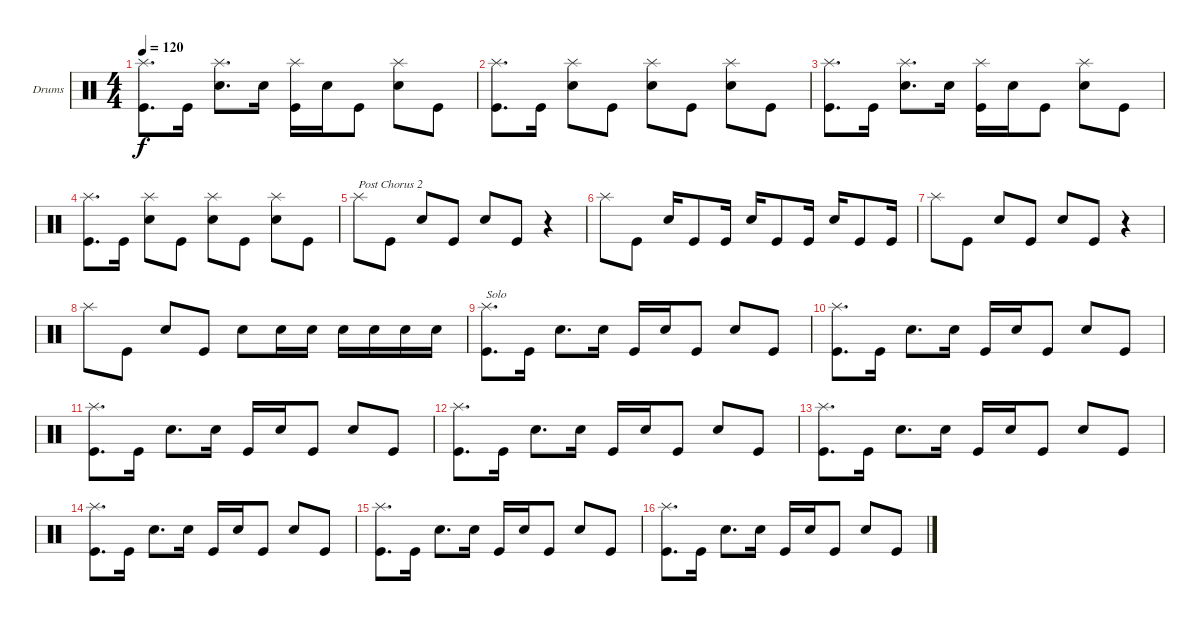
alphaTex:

\bracketExtendMode groupsimilarinstruments
\firstSystemTrackNameOrientation horizontal
\otherSystemsTrackNameOrientation horizontal
\track ("Drumkit" "Drums") {instrument percussion}
\staff {score}
\articulation defaults
\ts (4 4)
\tempo 120
\clef neutral
\ks c
("Splash (hit)" "Kick (hit)").8{d dy f} "Kick (hit)".16 ("Splash (hit)" "Snare (hit) 2").8{d} "Snare (hit) 2".16 ("Splash (hit)" "Kick (hit)").16 "Snare (hit) 2".16 "Kick (hit)".8 ("Splash (hit)" "Snare (hit) 2").8 "Kick (hit)".8 |
("Splash (hit)" "Kick (hit)").8{d} "Kick (hit)".16 ("Splash (hit)" "Snare (hit) 2").8 "Kick (hit)".8 ("Splash (hit)" "Snare (hit) 2").8 "Kick (hit)".8 ("Splash (hit)" "Snare (hit) 2").8 "Kick (hit)".8 |
("Splash (hit)" "Kick (hit)").8{d} "Kick (hit)".16 ("Splash (hit)" "Snare (hit) 2").8{d} "Snare (hit) 2".16 ("Splash (hit)" "Kick (hit)").16 "Snare (hit) 2".16 "Kick (hit)".8 ("Splash (hit)" "Snare (hit) 2").8 "Kick (hit)".8 |
("Splash (hit)" "Kick (hit)").8{d} "Kick (hit)".16 ("Splash (hit)" "Snare (hit) 2").8 "Kick (hit)".8 ("Splash (hit)" "Snare (hit) 2").8 "Kick (hit)".8 ("Splash (hit)" "Snare (hit) 2").8 "Kick (hit)".8 |
"Splash (hit)".8{txt "Post Chorus 2"} "Kick (hit)".8 "Snare (hit) 2".8 "Kick (hit)".8 "Snare (hit) 2".8 "Kick (hit)".8 r.4 |
"Splash (hit)".8 "Kick (hit)".8 "Snare (hit) 2".16 "Kick (hit)".8 "Kick (hit)".16 "Snare (hit) 2".16 "Kick (hit)".8 "Kick (hit)".16 "Snare (hit) 2".16 "Kick (hit)".8 "Kick (hit)".16 |
"Splash (hit)".8 "Kick (hit)".8 "Snare (hit) 2".8 "Kick (hit)".8 "Snare (hit) 2".8 "Kick (hit)".8 r.4 |
"Splash (hit)".8 "Kick (hit)".8 "Snare (hit) 2".8 "Kick (hit)".8 "Snare (hit) 2".8 "Snare (hit) 2".16 "Snare (hit) 2".16 "Snare (hit) 2".16 "Snare (hit) 2".16 "Snare (hit) 2".16 "Snare (hit) 2".16 |
("Splash (hit)" "Kick (hit)").8{d txt "Solo"} "Kick (hit)".16 "Snare (hit) 2".8{d} "Snare (hit) 2".16 "Kick (hit)".16 "Snare (hit) 2".16 "Kick (hit)".8 "Snare (hit) 2".8 "Kick (hit)".8 |
("Splash (hit)" "Kick (hit)").8{d} "Kick (hit)".16 "Snare (hit) 2".8{d} "Snare (hit) 2".16 "Kick (hit)".16 "Snare (hit) 2".16 "Kick (hit)".8 "Snare (hit) 2".8 "Kick (hit)".8 |
("Splash (hit)" "Kick (hit)").8{d} "Kick (hit)".16 "Snare (hit) 2".8{d} "Snare (hit) 2".16 "Kick (hit)".16 "Snare (hit) 2".16 "Kick (hit)".8 "Snare (hit) 2".8 "Kick (hit)".8 |
("Splash (hit)" "Kick (hit)").8{d} "Kick (hit)".16 "Snare (hit) 2".8{d} "Snare (hit) 2".16 "Kick (hit)".16 "Snare (hit) 2".16 "Kick (hit)".8 "Snare (hit) 2".8 "Kick (hit)".8 |
("Splash (hit)" "Kick (hit)").8{d} "Kick (hit)".16 "Snare (hit) 2".8{d} "Snare (hit) 2".16 "Kick (hit)".16 "Snare (hit) 2".16 "Kick (hit)".8 "Snare (hit) 2".8 "Kick (hit)".8 |
("Splash (hit)" "Kick (hit)").8{d} "Kick (hit)".16 "Snare (hit) 2".8{d} "Snare (hit) 2".16 "Kick (hit)".16 "Snare (hit) 2".16 "Kick (hit)".8 "Snare (hit) 2".8 "Kick (hit)".8 |
("Splash (hit)" "Kick (hit)").8{d} "Kick (hit)".16 "Snare (hit) 2".8{d} "Snare (hit) 2".16 "Kick (hit)".16 "Snare (hit) 2".16 "Kick (hit)".8 "Snare (hit) 2".8 "Kick (hit)".8 |
("Splash (hit)" "Kick (hit)").8{d} "Kick (hit)".16 "Snare (hit) 2".8{d} "Snare (hit) 2".16 "Kick (hit)".16 "Snare (hit) 2".16 "Kick (hit)".8 "Snare (hit) 2".8 "Kick (hit)".8
